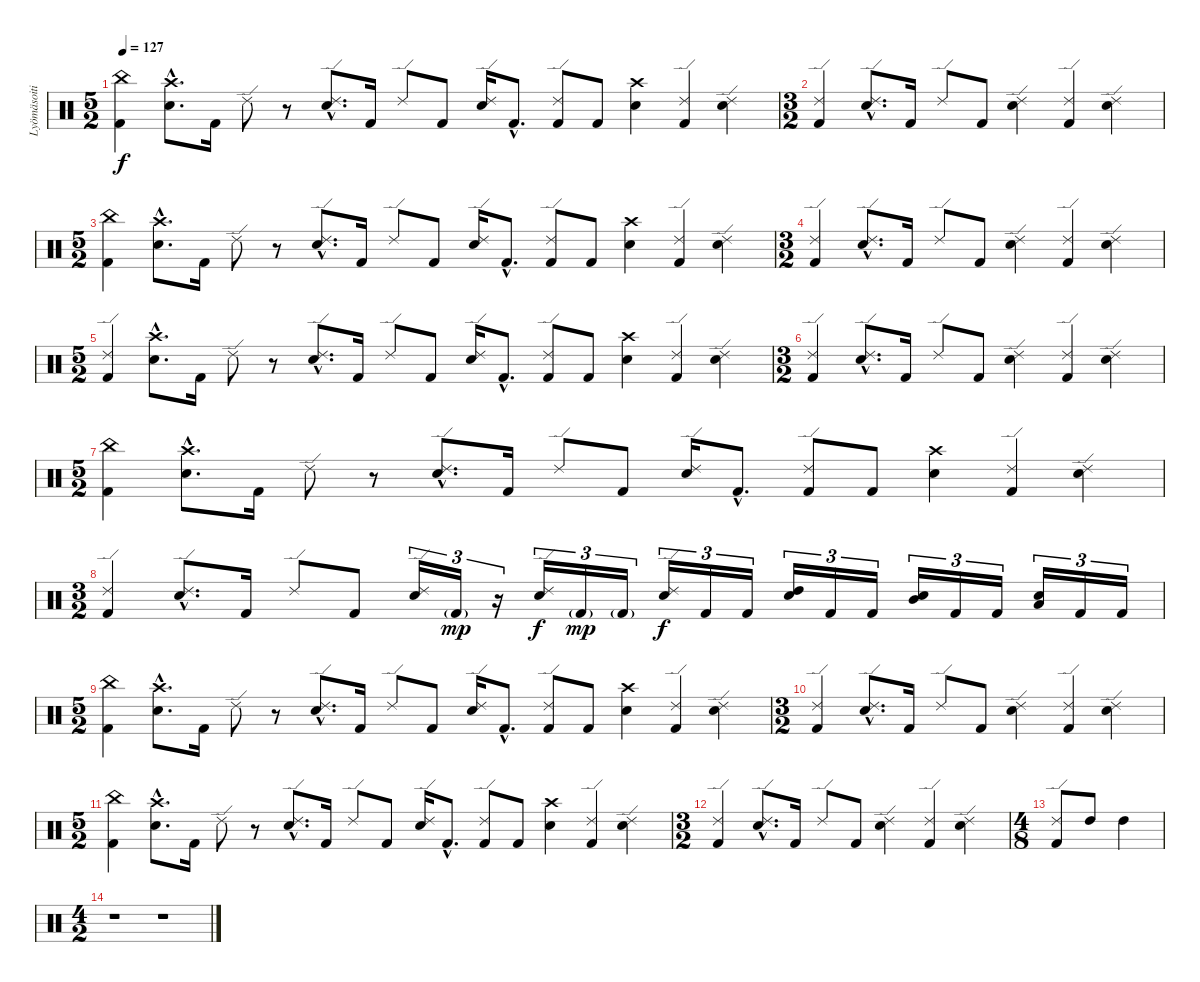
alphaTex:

\track ("Lyömäsoitin" "Lyömäsoiti") {instrument percussion}
\staff {score}
\articulation defaults
\ts (5 2)
\tempo 127
\clef neutral
\ks c
("China (hit)" "Kick (hit) 2").4{dy f} ("Crash high (hit)"{hac} "Electric Snare (hit)"{hac}).8{d} "Kick (hit) 2".16 "Ride (edge) 2".8 r.8 ("Ride (edge) 2"{hac} "Electric Snare (hit)"{hac}).8{d} "Kick (hit) 2".16 "Ride (edge) 2".8 "Kick (hit) 2".8 ("Ride (edge) 2" "Electric Snare (hit)").16 "Kick (hit) 2"{hac}.8{d} ("Ride (edge) 2" "Kick (hit) 2").8 "Kick (hit) 2".8 ("Crash high (hit)" "Electric Snare (hit)").4 ("Kick (hit) 2" "Ride (edge) 2").4 ("Ride (edge) 2" "Electric Snare (hit)").4 |
\ts (3 2)
("Ride (edge) 2" "Kick (hit) 2").4 ("Ride (edge) 2"{hac} "Electric Snare (hit)"{hac}).8{d} "Kick (hit) 2".16 "Ride (edge) 2".8 "Kick (hit) 2".8 ("Ride (edge) 2" "Electric Snare (hit)").4 ("Ride (edge) 2" "Kick (hit) 2").4 ("Ride (edge) 2" "Electric Snare (hit)").4 |
\ts (5 2)
("China (hit)" "Kick (hit) 2").4 ("Crash high (hit)"{hac} "Electric Snare (hit)"{hac}).8{d} "Kick (hit) 2".16 "Ride (edge) 2".8 r.8 ("Ride (edge) 2"{hac} "Electric Snare (hit)"{hac}).8{d} "Kick (hit) 2".16 "Ride (edge) 2".8 "Kick (hit) 2".8 ("Ride (edge) 2" "Electric Snare (hit)").16 "Kick (hit) 2"{hac}.8{d} ("Ride (edge) 2" "Kick (hit) 2").8 "Kick (hit) 2".8 ("Crash high (hit)" "Electric Snare (hit)").4 ("Kick (hit) 2" "Ride (edge) 2").4 ("Ride (edge) 2" "Electric Snare (hit)").4 |
\ts (3 2)
("Ride (edge) 2" "Kick (hit) 2").4 ("Ride (edge) 2"{hac} "Electric Snare (hit)"{hac}).8{d} "Kick (hit) 2".16 "Ride (edge) 2".8 "Kick (hit) 2".8 ("Ride (edge) 2" "Electric Snare (hit)").4 ("Ride (edge) 2" "Kick (hit) 2").4 ("Ride (edge) 2" "Electric Snare (hit)").4 |
\ts (5 2)
("Ride (edge) 2" "Kick (hit) 2").4 ("Crash high (hit)"{hac} "Electric Snare (hit)"{hac}).8{d} "Kick (hit) 2".16 "Ride (edge) 2".8 r.8 ("Ride (edge) 2"{hac} "Electric Snare (hit)"{hac}).8{d} "Kick (hit) 2".16 "Ride (edge) 2".8 "Kick (hit) 2".8 ("Ride (edge) 2" "Electric Snare (hit)").16 "Kick (hit) 2"{hac}.8{d} ("Ride (edge) 2" "Kick (hit) 2").8 "Kick (hit) 2".8 ("Crash high (hit)" "Electric Snare (hit)").4 ("Kick (hit) 2" "Ride (edge) 2").4 ("Ride (edge) 2" "Electric Snare (hit)").4 |
\ts (3 2)
("Ride (edge) 2" "Kick (hit) 2").4 ("Ride (edge) 2"{hac} "Electric Snare (hit)"{hac}).8{d} "Kick (hit) 2".16 "Ride (edge) 2".8 "Kick (hit) 2".8 ("Ride (edge) 2" "Electric Snare (hit)").4 ("Ride (edge) 2" "Kick (hit) 2").4 ("Ride (edge) 2" "Electric Snare (hit)").4 |
\ts (5 2)
("China (hit)" "Kick (hit) 2").4 ("Crash high (hit)"{hac} "Electric Snare (hit)"{hac}).8{d} "Kick (hit) 2".16 "Ride (edge) 2".8 r.8 ("Ride (edge) 2"{hac} "Electric Snare (hit)"{hac}).8{d} "Kick (hit) 2".16 "Ride (edge) 2".8 "Kick (hit) 2".8 ("Ride (edge) 2" "Electric Snare (hit)").16 "Kick (hit) 2"{hac}.8{d} ("Ride (edge) 2" "Kick (hit) 2").8 "Kick (hit) 2".8 ("Crash high (hit)" "Electric Snare (hit)").4 ("Kick (hit) 2" "Ride (edge) 2").4 ("Ride (edge) 2" "Electric Snare (hit)").4 |
\ts (3 2)
("Ride (edge) 2" "Kick (hit) 2").4 ("Ride (edge) 2"{hac} "Electric Snare (hit)"{hac}).8{d} "Kick (hit) 2".16 "Ride (edge) 2".8 "Kick (hit) 2".8 ("Ride (edge) 2" "Electric Snare (hit)").16{tu (3 2)} "Kick (hit) 2"{g}.16{tu (3 2) dy mp} r.16{tu (3 2)} ("Ride (edge) 2" "Electric Snare (hit)").16{tu (3 2) dy f} "Kick (hit) 2"{g}.16{tu (3 2) dy mp} "Kick (hit) 2"{g}.16{tu (3 2)} ("Ride (edge) 2" "Electric Snare (hit)").16{tu (3 2) dy f} "Kick (hit) 2".16{tu (3 2)} "Kick (hit) 2".16{tu (3 2)} ("High Tom (hit)" "Electric Snare (hit)").16{tu (3 2)} "Kick (hit) 2".16{tu (3 2)} "Kick (hit) 2".16{tu (3 2)} ("Mid Tom (hit)" "Electric Snare (hit)").16{tu (3 2)} "Kick (hit) 2".16{tu (3 2)} "Kick (hit) 2".16{tu (3 2)} ("Low Tom (hit)" "Electric Snare (hit)").16{tu (3 2)} "Kick (hit) 2".16{tu (3 2)} "Kick (hit) 2".16{tu (3 2)} |
\ts (5 2)
("China (hit)" "Kick (hit) 2").4 ("Crash high (hit)"{hac} "Electric Snare (hit)"{hac}).8{d} "Kick (hit) 2".16 "Ride (edge) 2".8 r.8 ("Ride (edge) 2"{hac} "Electric Snare (hit)"{hac}).8{d} "Kick (hit) 2".16 "Ride (edge) 2".8 "Kick (hit) 2".8 ("Ride (edge) 2" "Electric Snare (hit)").16 "Kick (hit) 2"{hac}.8{d} ("Ride (edge) 2" "Kick (hit) 2").8 "Kick (hit) 2".8 ("Crash high (hit)" "Electric Snare (hit)").4 ("Kick (hit) 2" "Ride (edge) 2").4 ("Ride (edge) 2" "Electric Snare (hit)").4 |
\ts (3 2)
("Ride (edge) 2" "Kick (hit) 2").4 ("Ride (edge) 2"{hac} "Electric Snare (hit)"{hac}).8{d} "Kick (hit) 2".16 "Ride (edge) 2".8 "Kick (hit) 2".8 ("Ride (edge) 2" "Electric Snare (hit)").4 ("Ride (edge) 2" "Kick (hit) 2").4 ("Ride (edge) 2" "Electric Snare (hit)").4 |
\ts (5 2)
("China (hit)" "Kick (hit) 2").4 ("Crash high (hit)"{hac} "Electric Snare (hit)"{hac}).8{d} "Kick (hit) 2".16 "Ride (edge) 2".8 r.8 ("Ride (edge) 2"{hac} "Electric Snare (hit)"{hac}).8{d} "Kick (hit) 2".16 "Ride (edge) 2".8 "Kick (hit) 2".8 ("Ride (edge) 2" "Electric Snare (hit)").16 "Kick (hit) 2"{hac}.8{d} ("Ride (edge) 2" "Kick (hit) 2").8 "Kick (hit) 2".8 ("Crash high (hit)" "Electric Snare (hit)").4 ("Kick (hit) 2" "Ride (edge) 2").4 ("Ride (edge) 2" "Electric Snare (hit)").4 |
\ts (3 2)
("Ride (edge) 2" "Kick (hit) 2").4 ("Ride (edge) 2"{hac} "Electric Snare (hit)"{hac}).8{d} "Kick (hit) 2".16 "Ride (edge) 2".8 "Kick (hit) 2".8 ("Ride (edge) 2" "Electric Snare (hit)").4 ("Ride (edge) 2" "Kick (hit) 2").4 ("Ride (edge) 2" "Electric Snare (hit)").4 |
\ts (4 8)
("Ride (edge) 2" "Kick (hit) 2").8 "High Tom (hit)".8 "High Tom (hit)".4 |
\ts (4 2)
r.1 r.1
